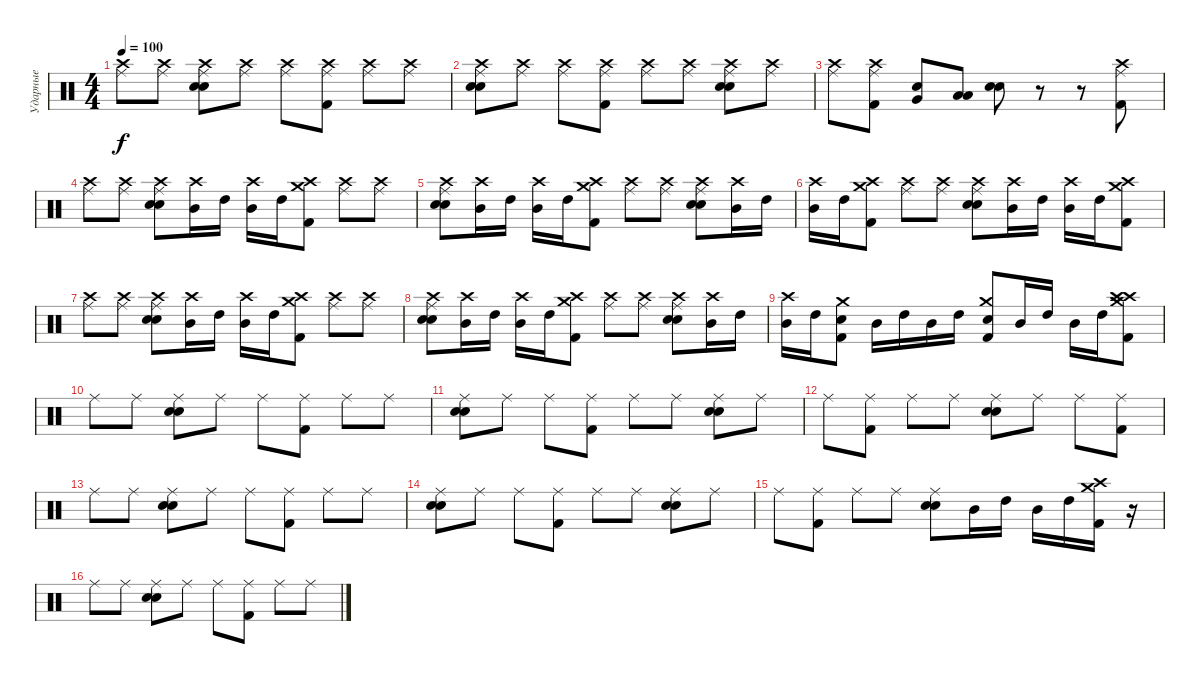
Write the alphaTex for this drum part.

\track ("Ударные" "Ударные") {instrument percussion}
\staff {score}
\articulation defaults
\ts (4 4)
\tempo 100
\clef neutral
\ks c
("Crash high (hit)" "Ride (middle)").8{dy f} ("Crash high (hit)" "Ride (middle)").8 ("Crash high (hit)" "Hand Clap (hit)" "Electric Snare (hit)" "Ride (middle)").8 ("Crash high (hit)" "Ride (middle)").8 ("Crash high (hit)" "Ride (middle)").8 ("Crash high (hit)" "Kick (hit) 2" "Ride (middle)").8 ("Crash high (hit)" "Ride (middle)").8 ("Crash high (hit)" "Ride (middle)").8 |
("Crash high (hit)" "Hand Clap (hit)" "Electric Snare (hit)" "Ride (middle)").8 ("Crash high (hit)" "Ride (middle)").8 ("Crash high (hit)" "Ride (middle)").8 ("Crash high (hit)" "Kick (hit) 2" "Ride (middle)").8 ("Crash high (hit)" "Ride (middle)").8 ("Crash high (hit)" "Ride (middle)").8 ("Crash high (hit)" "Hand Clap (hit)" "Electric Snare (hit)" "Ride (middle)").8 ("Crash high (hit)" "Ride (middle)").8 |
("Crash high (hit)" "Ride (middle)").8 ("Crash high (hit)" "Kick (hit) 2" "Ride (middle)").8 ("Very Low Tom (hit)" "Electric Snare (hit)").8 ("Low Tom (hit)" "Low Floor Tom (hit)").8 ("Hand Clap (hit)" "Electric Snare (hit)").8 r.8 r.8 ("Crash high (hit)" "Kick (hit) 2" "Ride (middle)").8 |
("Crash high (hit)" "Ride (middle)").8 ("Crash high (hit)" "Ride (middle)").8 ("Crash high (hit)" "Hand Clap (hit)" "Electric Snare (hit)" "Ride (middle)").8 ("Crash high (hit)" "Mid Tom (hit)").16 "High Tom (hit)".16 ("Crash high (hit)" "Mid Tom (hit)").16 "High Tom (hit)".16 ("Crash medium (hit)" "Crash high (hit)" "Kick (hit) 2").8 ("Crash high (hit)" "Ride (middle)").8 ("Crash high (hit)" "Ride (middle)").8 |
("Crash high (hit)" "Hand Clap (hit)" "Electric Snare (hit)" "Ride (middle)").8 ("Crash high (hit)" "Mid Tom (hit)").16 "High Tom (hit)".16 ("Crash high (hit)" "Mid Tom (hit)").16 "High Tom (hit)".16 ("Crash medium (hit)" "Crash high (hit)" "Kick (hit) 2").8 ("Crash high (hit)" "Ride (middle)").8 ("Crash high (hit)" "Ride (middle)").8 ("Crash high (hit)" "Hand Clap (hit)" "Electric Snare (hit)" "Ride (middle)").8 ("Crash high (hit)" "Mid Tom (hit)").16 "High Tom (hit)".16 |
("Crash high (hit)" "Mid Tom (hit)").16 "High Tom (hit)".16 ("Crash medium (hit)" "Crash high (hit)" "Kick (hit) 2").8 ("Crash high (hit)" "Ride (middle)").8 ("Crash high (hit)" "Ride (middle)").8 ("Crash high (hit)" "Hand Clap (hit)" "Electric Snare (hit)" "Ride (middle)").8 ("Crash high (hit)" "Mid Tom (hit)").16 "High Tom (hit)".16 ("Crash high (hit)" "Mid Tom (hit)").16 "High Tom (hit)".16 ("Crash medium (hit)" "Crash high (hit)" "Kick (hit) 2").8 |
("Crash high (hit)" "Ride (middle)").8 ("Crash high (hit)" "Ride (middle)").8 ("Crash high (hit)" "Hand Clap (hit)" "Electric Snare (hit)" "Ride (middle)").8 ("Crash high (hit)" "Mid Tom (hit)").16 "High Tom (hit)".16 ("Crash high (hit)" "Mid Tom (hit)").16 "High Tom (hit)".16 ("Crash medium (hit)" "Crash high (hit)" "Kick (hit) 2").8 ("Crash high (hit)" "Ride (middle)").8 ("Crash high (hit)" "Ride (middle)").8 |
("Crash high (hit)" "Hand Clap (hit)" "Electric Snare (hit)" "Ride (middle)").8 ("Crash high (hit)" "Mid Tom (hit)").16 "High Tom (hit)".16 ("Crash high (hit)" "Mid Tom (hit)").16 "High Tom (hit)".16 ("Crash medium (hit)" "Crash high (hit)" "Kick (hit) 2").8 ("Crash high (hit)" "Ride (middle)").8 ("Crash high (hit)" "Ride (middle)").8 ("Crash high (hit)" "Hand Clap (hit)" "Electric Snare (hit)" "Ride (middle)").8 ("Crash high (hit)" "Mid Tom (hit)").16 "High Tom (hit)".16 |
("Crash high (hit)" "Mid Tom (hit)").16 "High Tom (hit)".16 ("Crash medium (hit)" "Snare (hit) 2" "Kick (hit) 2").8 "Mid Tom (hit)".16 "High Tom (hit)".16 "Mid Tom (hit)".16 "High Tom (hit)".16 ("Crash medium (hit)" "Snare (hit) 2" "Kick (hit) 2").8 "Mid Tom (hit)".16 "High Tom (hit)".16 "Mid Tom (hit)".16 "High Tom (hit)".16 ("Crash high (hit)" "Crash medium (hit)" "Crash high (hit)" "Kick (hit) 2").8 |
"Ride (middle)".8 "Ride (middle)".8 ("Hand Clap (hit)" "Electric Snare (hit)" "Ride (middle)").8 "Ride (middle)".8 "Ride (middle)".8 ("Kick (hit) 2" "Ride (middle)").8 "Ride (middle)".8 "Ride (middle)".8 |
("Hand Clap (hit)" "Electric Snare (hit)" "Ride (middle)").8 "Ride (middle)".8 "Ride (middle)".8 ("Kick (hit) 2" "Ride (middle)").8 "Ride (middle)".8 "Ride (middle)".8 ("Hand Clap (hit)" "Electric Snare (hit)" "Ride (middle)").8 "Ride (middle)".8 |
"Ride (middle)".8 ("Kick (hit) 2" "Ride (middle)").8 "Ride (middle)".8 "Ride (middle)".8 ("Hand Clap (hit)" "Electric Snare (hit)" "Ride (middle)").8 "Ride (middle)".8 "Ride (middle)".8 ("Kick (hit) 2" "Ride (middle)").8 |
"Ride (middle)".8 "Ride (middle)".8 ("Hand Clap (hit)" "Electric Snare (hit)" "Ride (middle)").8 "Ride (middle)".8 "Ride (middle)".8 ("Kick (hit) 2" "Ride (middle)").8 "Ride (middle)".8 "Ride (middle)".8 |
("Hand Clap (hit)" "Electric Snare (hit)" "Ride (middle)").8 "Ride (middle)".8 "Ride (middle)".8 ("Kick (hit) 2" "Ride (middle)").8 "Ride (middle)".8 "Ride (middle)".8 ("Hand Clap (hit)" "Electric Snare (hit)" "Ride (middle)").8 "Ride (middle)".8 |
"Ride (middle)".8 ("Kick (hit) 2" "Ride (middle)").8 "Ride (middle)".8 "Ride (middle)".8 ("Hand Clap (hit)" "Electric Snare (hit)" "Ride (middle)").8 "Mid Tom (hit)".16 "High Tom (hit)".16 "Mid Tom (hit)".16 "High Tom (hit)".16 ("Crash medium (hit)" "Crash high (hit)" "Kick (hit) 2").16 r.16 |
"Ride (middle)".8 "Ride (middle)".8 ("Hand Clap (hit)" "Electric Snare (hit)" "Ride (middle)").8 "Ride (middle)".8 "Ride (middle)".8 ("Kick (hit) 2" "Ride (middle)").8 "Ride (middle)".8 "Ride (middle)".8
